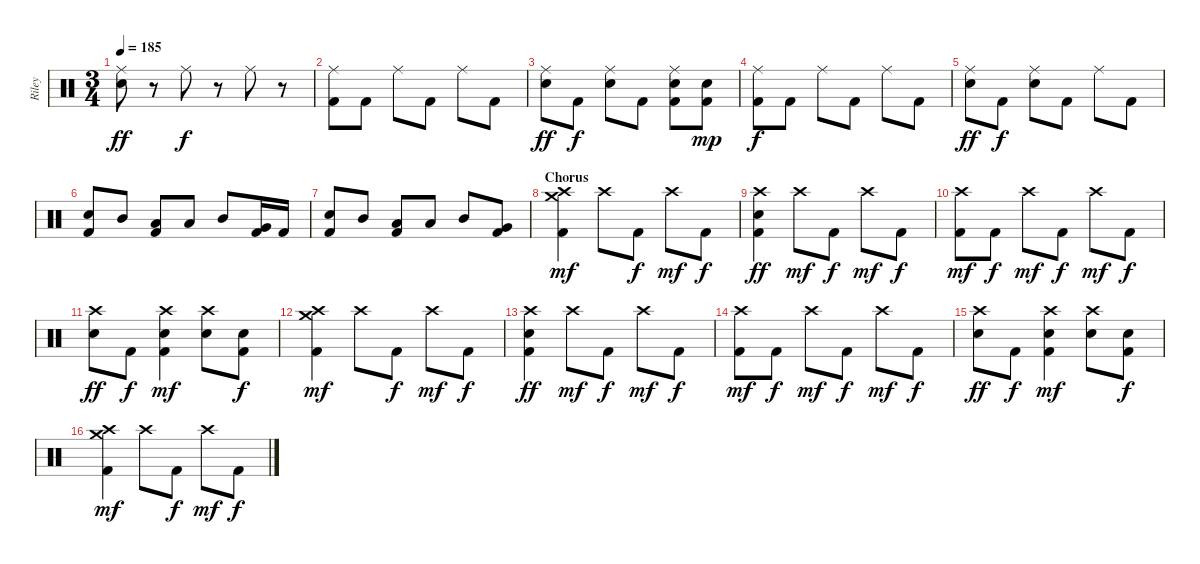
\track ("Riley" "Riley") {instrument percussion}
\staff {score}
\articulation defaults
\ts (3 4)
\tempo 185
\clef neutral
\ks c
("Ride (middle)" "Electric Snare (hit)").8{dy ff} r.8 "Ride (middle)".8{dy f} r.8 "Ride (middle)".8 r.8 |
("Ride (middle)" "Kick (hit) 2").8 "Kick (hit) 2".8 "Ride (middle)".8 "Kick (hit) 2".8 "Ride (middle)".8 "Kick (hit) 2".8 |
("Ride (middle)" "Electric Snare (hit)").8{dy ff} "Kick (hit) 2".8{dy f} ("Ride (middle)" "Electric Snare (hit)").8 "Kick (hit) 2".8 ("Ride (middle)" "Electric Snare (hit)" "Kick (hit) 2").8 ("Electric Snare (hit)" "Kick (hit) 2").8{dy mp} |
("Ride (middle)" "Kick (hit) 2").8{dy f} "Kick (hit) 2".8 "Ride (middle)".8 "Kick (hit) 2".8 "Ride (middle)".8 "Kick (hit) 2".8 |
("Ride (middle)" "Electric Snare (hit)").8{dy ff} "Kick (hit) 2".8{dy f} ("Ride (middle)" "Electric Snare (hit)").8 "Kick (hit) 2".8 "Ride (middle)".8 "Kick (hit) 2".8 |
("Electric Snare (hit)" "Kick (hit) 2").8 "Mid Tom (hit)".8 ("Low Tom (hit)" "Kick (hit) 2").8 "Low Tom (hit)".8 "Mid Tom (hit)".8 ("Very Low Tom (hit)" "Kick (hit) 2").16 "Kick (hit) 2".16 |
("Electric Snare (hit)" "Kick (hit) 2").8 "Mid Tom (hit)".8 ("Low Tom (hit)" "Kick (hit) 2").8 "Low Tom (hit)".8 "Mid Tom (hit)".8 ("Very Low Tom (hit)" "Kick (hit) 2").8 |
\section ("" "Chorus")
("Crash high (hit)" "Crash medium (hit)" "Kick (hit) 2").4{dy mf} "Crash high (hit)".8 "Kick (hit) 2".8{dy f} "Crash high (hit)".8{dy mf} "Kick (hit) 2".8{dy f} |
("Crash high (hit)" "Electric Snare (hit)" "Kick (hit) 2").4{dy ff} "Crash high (hit)".8{dy mf} "Kick (hit) 2".8{dy f} "Crash high (hit)".8{dy mf} "Kick (hit) 2".8{dy f} |
("Crash high (hit)" "Kick (hit) 2").8{dy mf} "Kick (hit) 2".8{dy f} "Crash high (hit)".8{dy mf} "Kick (hit) 2".8{dy f} "Crash high (hit)".8{dy mf} "Kick (hit) 2".8{dy f} |
("Crash high (hit)" "Electric Snare (hit)").8{dy ff} "Kick (hit) 2".8{dy f} ("Crash high (hit)" "Electric Snare (hit)" "Kick (hit) 2").4{dy mf} ("Crash high (hit)" "Electric Snare (hit)").8 ("Electric Snare (hit)" "Kick (hit) 2").8{dy f} |
("Crash high (hit)" "Crash medium (hit)" "Kick (hit) 2").4{dy mf} "Crash high (hit)".8 "Kick (hit) 2".8{dy f} "Crash high (hit)".8{dy mf} "Kick (hit) 2".8{dy f} |
("Crash high (hit)" "Electric Snare (hit)" "Kick (hit) 2").4{dy ff} "Crash high (hit)".8{dy mf} "Kick (hit) 2".8{dy f} "Crash high (hit)".8{dy mf} "Kick (hit) 2".8{dy f} |
("Crash high (hit)" "Kick (hit) 2").8{dy mf} "Kick (hit) 2".8{dy f} "Crash high (hit)".8{dy mf} "Kick (hit) 2".8{dy f} "Crash high (hit)".8{dy mf} "Kick (hit) 2".8{dy f} |
("Crash high (hit)" "Electric Snare (hit)").8{dy ff} "Kick (hit) 2".8{dy f} ("Crash high (hit)" "Electric Snare (hit)" "Kick (hit) 2").4{dy mf} ("Crash high (hit)" "Electric Snare (hit)").8 ("Electric Snare (hit)" "Kick (hit) 2").8{dy f} |
("Crash high (hit)" "Crash medium (hit)" "Kick (hit) 2").4{dy mf} "Crash high (hit)".8 "Kick (hit) 2".8{dy f} "Crash high (hit)".8{dy mf} "Kick (hit) 2".8{dy f}
